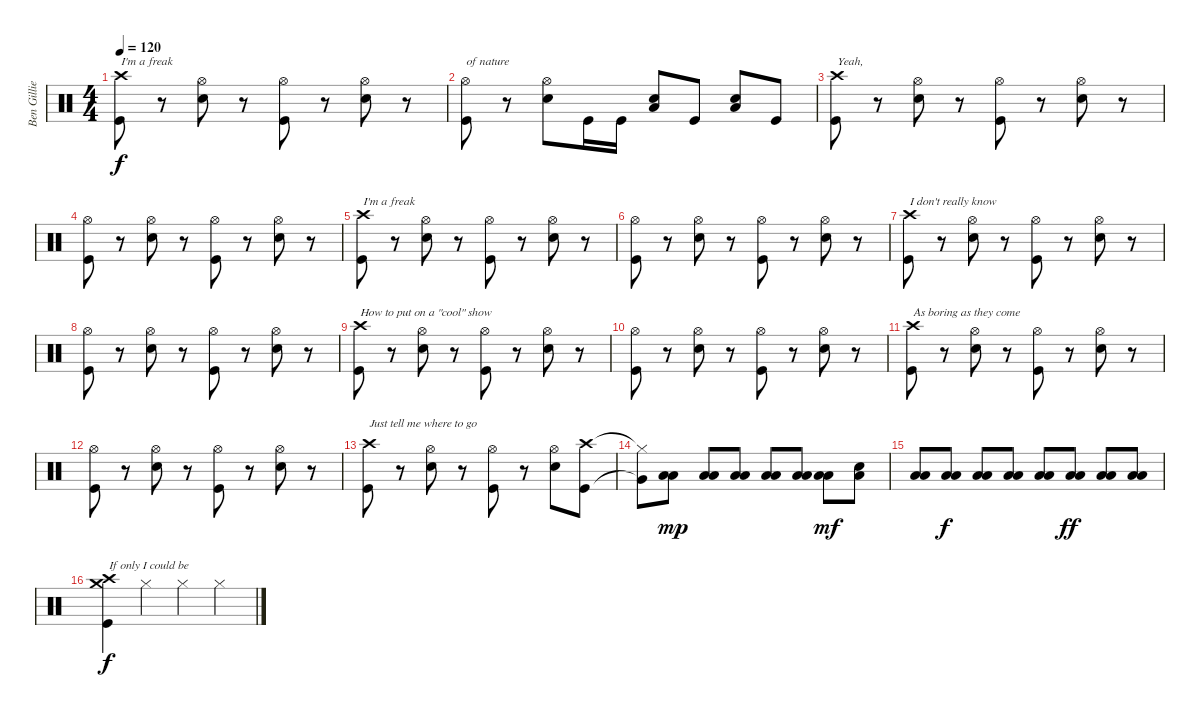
\track ("Ben Gillies" "Ben Gillie") {instrument percussion}
\staff {score}
\articulation defaults
\ts (4 4)
\tempo 120
\clef neutral
\ks c
("Crash high (hit)" "Kick (hit)").8{txt "I'm a freak" dy f} r.8 ("Electric Snare (hit)" "Hi-Hat (open)").8 r.8 ("Hi-Hat (open)" "Kick (hit)").8 r.8 ("Electric Snare (hit)" "Hi-Hat (open)").8 r.8 |
("Hi-Hat (open)" "Kick (hit)").8{txt "of nature"} r.8 ("Electric Snare (hit)" "Hi-Hat (open)").8 "Kick (hit)".16 "Kick (hit)".16 ("Low Tom (hit)" "Electric Snare (hit)").8 "Kick (hit)".8 ("Low Floor Tom (hit)" "Electric Snare (hit)").8 "Kick (hit)".8 |
("Crash high (hit)" "Kick (hit)").8{txt "Yeah,"} r.8 ("Electric Snare (hit)" "Hi-Hat (open)").8 r.8 ("Hi-Hat (open)" "Kick (hit)").8 r.8 ("Electric Snare (hit)" "Hi-Hat (open)").8 r.8 |
("Hi-Hat (open)" "Kick (hit)").8 r.8 ("Electric Snare (hit)" "Hi-Hat (open)").8 r.8 ("Hi-Hat (open)" "Kick (hit)").8 r.8 ("Electric Snare (hit)" "Hi-Hat (open)").8 r.8 |
("Crash high (hit)" "Kick (hit)").8{txt "I'm a freak"} r.8 ("Electric Snare (hit)" "Hi-Hat (open)").8 r.8 ("Hi-Hat (open)" "Kick (hit)").8 r.8 ("Electric Snare (hit)" "Hi-Hat (open)").8 r.8 |
("Hi-Hat (open)" "Kick (hit)").8 r.8 ("Electric Snare (hit)" "Hi-Hat (open)").8 r.8 ("Hi-Hat (open)" "Kick (hit)").8 r.8 ("Electric Snare (hit)" "Hi-Hat (open)").8 r.8 |
("Crash high (hit)" "Kick (hit)").8{txt "I don't really know"} r.8 ("Snare (hit) 2" "Hi-Hat (open)").8 r.8 ("Hi-Hat (open)" "Kick (hit)").8 r.8 ("Snare (hit) 2" "Hi-Hat (open)").8 r.8 |
("Hi-Hat (open)" "Kick (hit)").8 r.8 ("Snare (hit) 2" "Hi-Hat (open)").8 r.8 ("Hi-Hat (open)" "Kick (hit)").8 r.8 ("Snare (hit) 2" "Hi-Hat (open)").8 r.8 |
("Crash high (hit)" "Kick (hit)").8{txt "How to put on a \"cool\" show"} r.8 ("Snare (hit) 2" "Hi-Hat (open)").8 r.8 ("Hi-Hat (open)" "Kick (hit)").8 r.8 ("Snare (hit) 2" "Hi-Hat (open)").8 r.8 |
("Hi-Hat (open)" "Kick (hit)").8 r.8 ("Snare (hit) 2" "Hi-Hat (open)").8 r.8 ("Hi-Hat (open)" "Kick (hit)").8 r.8 ("Snare (hit) 2" "Hi-Hat (open)").8 r.8 |
("Crash high (hit)" "Kick (hit)").8{txt "As boring as they come"} r.8 ("Snare (hit) 2" "Hi-Hat (open)").8 r.8 ("Hi-Hat (open)" "Kick (hit)").8 r.8 ("Snare (hit) 2" "Hi-Hat (open)").8 r.8 |
("Hi-Hat (open)" "Kick (hit)").8 r.8 ("Snare (hit) 2" "Hi-Hat (open)").8 r.8 ("Hi-Hat (open)" "Kick (hit)").8 r.8 ("Snare (hit) 2" "Hi-Hat (open)").8 r.8 |
("Crash high (hit)" "Kick (hit)").8{txt "Just tell me where to go"} r.8 ("Snare (hit) 2" "Hi-Hat (open)").8 r.8 ("Hi-Hat (open)" "Kick (hit)").8 r.8 ("Snare (hit) 2" "Hi-Hat (open)").8 ("Crash high (hit)" "Kick (hit)").8 |
("Hi-Hat (closed)"{t} "Very Low Tom (hit)"{t}).8 ("Low Floor Tom (hit)" "Low Tom (hit)").8{dy mp} ("Low Floor Tom (hit)" "Low Tom (hit)").8 ("Low Floor Tom (hit)" "Low Tom (hit)").8 ("Low Floor Tom (hit)" "Low Tom (hit)").8 ("Low Floor Tom (hit)" "Low Tom (hit)").8 ("Low Floor Tom (hit)" "Low Tom (hit)").8{dy mf} ("Low Floor Tom (hit)" "Electric Snare (hit)").8 |
("Low Floor Tom (hit)" "Low Tom (hit)").8 ("Low Floor Tom (hit)" "Low Tom (hit)").8{dy f} ("Low Floor Tom (hit)" "Low Tom (hit)").8 ("Low Floor Tom (hit)" "Low Tom (hit)").8 ("Low Floor Tom (hit)" "Low Tom (hit)").8 ("Low Floor Tom (hit)" "Low Tom (hit)").8{dy ff} ("Low Floor Tom (hit)" "Low Tom (hit)").8 ("Low Floor Tom (hit)" "Low Tom (hit)").8 |
("Crash high (hit)" "Crash medium (hit)" "Kick (hit)").4{txt "If only I could be" dy f} "Hi-Hat (closed)".4 "Hi-Hat (closed)".4 "Hi-Hat (closed)".4
